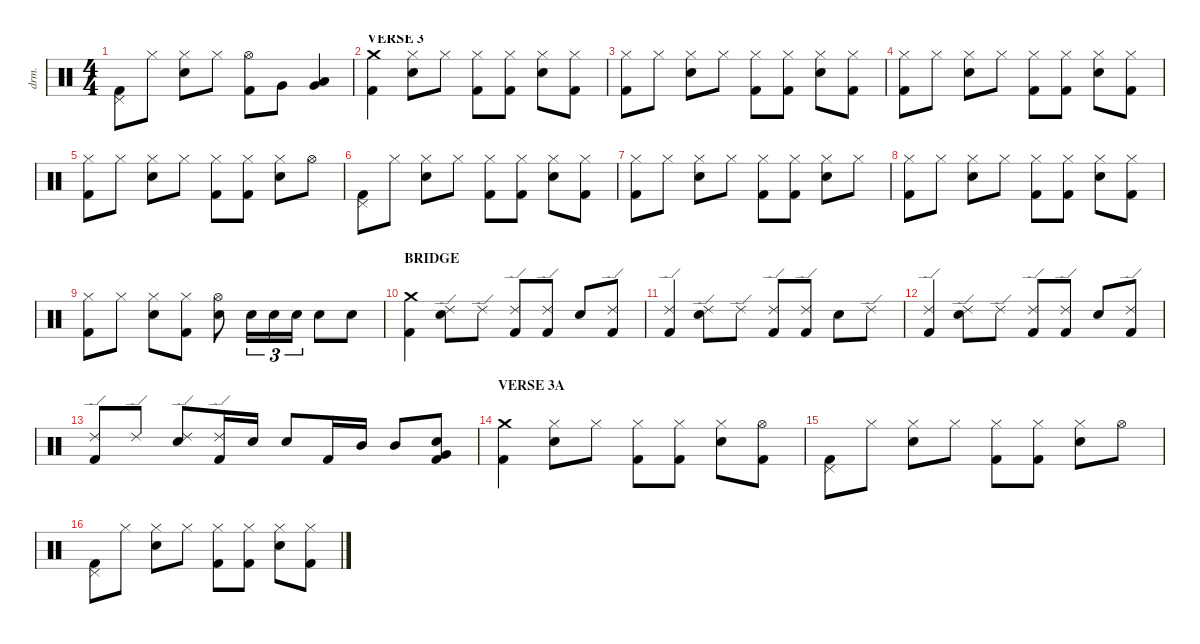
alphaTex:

\defaultSystemsLayout 4
\hideDynamics
\bracketExtendMode nobrackets
\otherSystemsTrackNameOrientation horizontal
\track ("Drums" "drm.") {defaultSystemsLayout 4 solo instrument percussion}
\staff {score}
\articulation defaults
\ts (4 4)
\tempo (127 hide)
\clef neutral
\ks c
("Pedal Hi-Hat (hit)" "Kick (hit) 2").8{dy f beam Down} "Hi-Hat (closed)".8{dy mf beam Down} ("Hi-Hat (closed)" "Snare (hit) 2").8{dy f beam Down} "Hi-Hat (closed)".8{dy mf beam Down} ("Hi-Hat (open)" "Kick (hit) 2").8{dy f beam Down} "Very Low Tom (hit)".8{dy fff beam Down} ("Low Tom (hit)" "Very Low Tom (hit)").4{beam Up} |
\section ("" "VERSE 3")
("Crash medium (hit)" "Kick (hit) 2").4{dy f beam Down} ("Hi-Hat (closed)" "Snare (hit) 2").8{dy ff beam Down} "Hi-Hat (closed)".8{dy mf beam Down} ("Hi-Hat (closed)" "Kick (hit) 2").8{dy f beam Down} ("Hi-Hat (closed)" "Kick (hit) 2").8{dy mf beam Down} ("Hi-Hat (closed)" "Snare (hit) 2").8{beam Down} ("Hi-Hat (closed)" "Kick (hit) 2").8{dy f beam Down} |
("Hi-Hat (closed)" "Kick (hit) 2").8{dy ff beam Down} "Hi-Hat (closed)".8{dy mf beam Down} ("Hi-Hat (closed)" "Snare (hit) 2").8{dy f beam Down} "Hi-Hat (closed)".8{dy mf beam Down} ("Hi-Hat (closed)" "Kick (hit) 2").8{beam Down} ("Hi-Hat (closed)" "Kick (hit) 2").8{beam Down} ("Hi-Hat (closed)" "Snare (hit) 2").8{dy f beam Down} ("Hi-Hat (closed)" "Kick (hit) 2").8{dy mf beam Down} |
("Hi-Hat (closed)" "Kick (hit) 2").8{dy f beam Down} "Hi-Hat (closed)".8{beam Down} ("Hi-Hat (closed)" "Snare (hit) 2").8{beam Down} "Hi-Hat (closed)".8{dy mf beam Down} ("Hi-Hat (closed)" "Kick (hit) 2").8{dy f beam Down} ("Hi-Hat (closed)" "Kick (hit) 2").8{dy mf beam Down} ("Hi-Hat (closed)" "Snare (hit) 2").8{dy f beam Down} ("Hi-Hat (closed)" "Kick (hit) 2").8{dy mf beam Down} |
("Hi-Hat (closed)" "Kick (hit) 2").8{dy ff beam Down} "Hi-Hat (closed)".8{dy mf beam Down} ("Hi-Hat (closed)" "Snare (hit) 2").8{dy f beam Down} "Hi-Hat (closed)".8{dy mf beam Down} ("Hi-Hat (closed)" "Kick (hit) 2").8{beam Down} ("Hi-Hat (closed)" "Kick (hit) 2").8{beam Down} ("Hi-Hat (closed)" "Snare (hit) 2").8{dy f beam Down} "Hi-Hat (open)".8{dy mf beam Down} |
("Pedal Hi-Hat (hit)" "Kick (hit) 2").8{dy f beam Down} "Hi-Hat (closed)".8{dy mf beam Down} ("Hi-Hat (closed)" "Snare (hit) 2").8{dy ff beam Down} "Hi-Hat (closed)".8{dy mf beam Down} ("Hi-Hat (closed)" "Kick (hit) 2").8{dy f beam Down} ("Hi-Hat (closed)" "Kick (hit) 2").8{dy mf beam Down} ("Hi-Hat (closed)" "Snare (hit) 2").8{beam Down} ("Hi-Hat (closed)" "Kick (hit) 2").8{dy f beam Down} |
("Hi-Hat (closed)" "Kick (hit) 2").8{dy ff beam Down} "Hi-Hat (closed)".8{dy mf beam Down} ("Hi-Hat (closed)" "Snare (hit) 2").8{dy f beam Down} "Hi-Hat (closed)".8{dy mf beam Down} ("Hi-Hat (closed)" "Kick (hit) 2").8{beam Down} ("Hi-Hat (closed)" "Kick (hit) 2").8{beam Down} ("Hi-Hat (closed)" "Snare (hit) 2").8{dy f beam Down} "Hi-Hat (closed)".8{dy mf beam Down} |
("Hi-Hat (closed)" "Kick (hit) 2").8{dy f beam Down} "Hi-Hat (closed)".8{beam Down} ("Hi-Hat (closed)" "Snare (hit) 2").8{beam Down} "Hi-Hat (closed)".8{dy mf beam Down} ("Hi-Hat (closed)" "Kick (hit) 2").8{dy f beam Down} ("Hi-Hat (closed)" "Kick (hit) 2").8{dy mf beam Down} ("Hi-Hat (closed)" "Snare (hit) 2").8{dy f beam Down} ("Hi-Hat (closed)" "Kick (hit) 2").8{dy mf beam Down} |
("Hi-Hat (closed)" "Kick (hit) 2").8{dy ff beam Down} "Hi-Hat (closed)".8{dy mf beam Down} ("Hi-Hat (closed)" "Snare (hit) 2").8{dy f beam Down} ("Hi-Hat (closed)" "Kick (hit) 2").8{dy mf beam Down} ("Hi-Hat (open)" "Snare (hit) 2").8{dy f beam Down} "Snare (hit) 2".16{tu (3 2) dy mf beam Down} "Snare (hit) 2".16{tu (3 2) beam Down} "Snare (hit) 2".16{tu (3 2) dy mp beam Down} "Snare (hit) 2".8{dy fff beam Down} "Snare (hit) 2".8{dy ff beam Down} |
\section ("" "BRIDGE")
\tempo (128 hide)
("Crash medium (hit)" "Kick (hit) 2").4{dy fff beam Down} ("Ride (edge) 2" "Snare (hit) 2").8{dy ff beam Down} "Ride (edge) 2".8{dy mf beam Down} ("Ride (edge) 2" "Kick (hit) 2").8{dy ff beam Up} ("Ride (edge) 2" "Kick (hit) 2").8{dy f beam Up} "Snare (hit) 2".8{beam Up} ("Ride (edge) 2" "Kick (hit) 2").8{dy mf beam Up} |
("Ride (edge) 2" "Kick (hit) 2").4{dy ff beam Up} ("Ride (edge) 2" "Snare (hit) 2").8{dy f beam Down} "Ride (edge) 2".8{dy mf beam Down} ("Ride (edge) 2" "Kick (hit) 2").8{dy f beam Up} ("Ride (edge) 2" "Kick (hit) 2").8{dy ff beam Up} "Snare (hit) 2".8{dy f beam Down} "Ride (edge) 2".8{beam Down} |
("Ride (edge) 2" "Kick (hit) 2").4{beam Up} ("Ride (edge) 2" "Snare (hit) 2").8{dy ff beam Down} "Ride (edge) 2".8{dy mf beam Down} ("Ride (edge) 2" "Kick (hit) 2").8{beam Up} ("Ride (edge) 2" "Kick (hit) 2").8{dy f beam Up} "Snare (hit) 2".8{beam Up} ("Ride (edge) 2" "Kick (hit) 2").8{dy mf beam Up} |
("Ride (edge) 2" "Kick (hit) 2").8{dy ff beam Up} "Ride (edge) 2".8{dy mf beam Up} ("Ride (edge) 2" "Snare (hit) 2").8{dy f beam Up} ("Ride (edge) 2" "Kick (hit) 2").16{dy mf beam Up} "Snare (hit) 2".16{dy ff beam Up} "Snare (hit) 2".8{dy fff beam Up} "Kick (hit) 2".16{dy f beam Up} "Mid Tom (hit)".16{dy fff beam Up} "Mid Tom (hit)".8{beam Up} ("Snare (hit) 2" "Very Low Tom (hit)" "Kick (hit) 2").8{dy f beam Up} |
\section ("" "VERSE 3A")
("Crash medium (hit)" "Kick (hit) 2").4{dy ff beam Down} ("Hi-Hat (closed)" "Snare (hit) 2").8{beam Down} "Hi-Hat (closed)".8{dy mf beam Down} ("Hi-Hat (closed)" "Kick (hit) 2").8{dy f beam Down} ("Hi-Hat (closed)" "Kick (hit) 2").8{dy mf beam Down} ("Hi-Hat (closed)" "Snare (hit) 2").8{beam Down} ("Hi-Hat (open)" "Kick (hit) 2").8{dy f beam Down} |
("Pedal Hi-Hat (hit)" "Kick (hit) 2").8{beam Down} "Hi-Hat (closed)".8{dy mf beam Down} ("Hi-Hat (closed)" "Snare (hit) 2").8{dy f beam Down} "Hi-Hat (closed)".8{dy mf beam Down} ("Hi-Hat (closed)" "Kick (hit) 2").8{beam Down} ("Hi-Hat (closed)" "Kick (hit) 2").8{beam Down} ("Hi-Hat (closed)" "Snare (hit) 2").8{dy f beam Down} "Hi-Hat (open)".8{dy mf beam Down} |
("Pedal Hi-Hat (hit)" "Kick (hit) 2").8{dy f beam Down} "Hi-Hat (closed)".8{beam Down} ("Hi-Hat (closed)" "Snare (hit) 2").8{beam Down} "Hi-Hat (closed)".8{dy mf beam Down} ("Hi-Hat (closed)" "Kick (hit) 2").8{dy f beam Down} ("Hi-Hat (closed)" "Kick (hit) 2").8{dy mf beam Down} ("Hi-Hat (closed)" "Snare (hit) 2").8{dy f beam Down} ("Hi-Hat (closed)" "Kick (hit) 2").8{dy mf beam Down}
